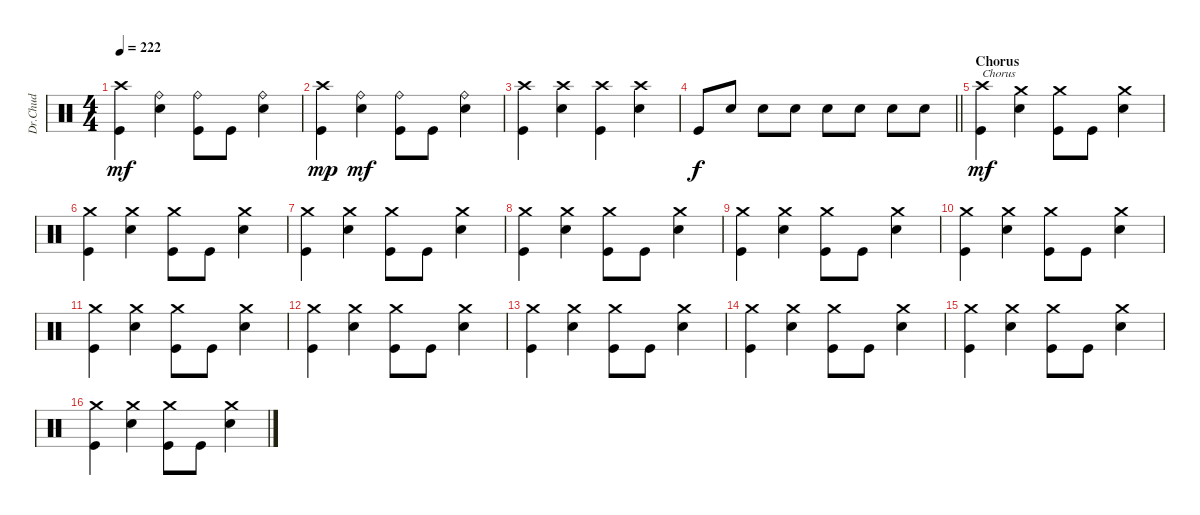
\track ("Dr.Chud" "Dr.Chud") {instrument percussion}
\staff {score}
\articulation defaults
\ts (4 4)
\tempo 222
\clef neutral
\ks c
("Crash high (hit)" "Kick (hit)").4{dy mf} ("Ride (bell)" "Electric Snare (hit)").4 ("Ride (bell)" "Kick (hit)").8 "Kick (hit)".8 ("Ride (bell)" "Electric Snare (hit)").4 |
("Crash high (hit)" "Kick (hit)").4{dy mp} ("Ride (bell)" "Electric Snare (hit)").4{dy mf} ("Ride (bell)" "Kick (hit)").8 "Kick (hit)".8 ("Ride (bell)" "Electric Snare (hit)").4 |
("Crash high (hit)" "Kick (hit)").4 ("Crash high (hit)" "Electric Snare (hit)").4 ("Crash high (hit)" "Kick (hit)").4 ("Crash high (hit)" "Electric Snare (hit)").4 |
\barLineRight lightlight "Kick (hit)".8{dy f} "Electric Snare (hit)".8 "Electric Snare (hit)".8 "Electric Snare (hit)".8 "Electric Snare (hit)".8 "Electric Snare (hit)".8 "Electric Snare (hit)".8 "Electric Snare (hit)".8
|
\section ("" "Chorus")
("Crash high (hit)" "Kick (hit)").4{txt "Chorus" dy mf} ("Crash medium (hit)" "Electric Snare (hit)").4 ("Crash medium (hit)" "Kick (hit)").8 "Kick (hit)".8 ("Crash medium (hit)" "Electric Snare (hit)").4 |
("Crash medium (hit)" "Kick (hit)").4 ("Crash medium (hit)" "Electric Snare (hit)").4 ("Crash medium (hit)" "Kick (hit)").8 "Kick (hit)".8 ("Crash medium (hit)" "Electric Snare (hit)").4 |
("Crash medium (hit)" "Kick (hit)").4 ("Crash medium (hit)" "Electric Snare (hit)").4 ("Crash medium (hit)" "Kick (hit)").8 "Kick (hit)".8 ("Crash medium (hit)" "Electric Snare (hit)").4 |
("Crash medium (hit)" "Kick (hit)").4 ("Crash medium (hit)" "Electric Snare (hit)").4 ("Crash medium (hit)" "Kick (hit)").8 "Kick (hit)".8 ("Crash medium (hit)" "Electric Snare (hit)").4 |
("Crash medium (hit)" "Kick (hit)").4 ("Crash medium (hit)" "Electric Snare (hit)").4 ("Crash medium (hit)" "Kick (hit)").8 "Kick (hit)".8 ("Crash medium (hit)" "Electric Snare (hit)").4 |
("Crash medium (hit)" "Kick (hit)").4 ("Crash medium (hit)" "Electric Snare (hit)").4 ("Crash medium (hit)" "Kick (hit)").8 "Kick (hit)".8 ("Crash medium (hit)" "Electric Snare (hit)").4 |
("Crash medium (hit)" "Kick (hit)").4 ("Crash medium (hit)" "Electric Snare (hit)").4 ("Crash medium (hit)" "Kick (hit)").8 "Kick (hit)".8 ("Crash medium (hit)" "Electric Snare (hit)").4 |
("Crash medium (hit)" "Kick (hit)").4 ("Crash medium (hit)" "Electric Snare (hit)").4 ("Crash medium (hit)" "Kick (hit)").8 "Kick (hit)".8 ("Crash medium (hit)" "Electric Snare (hit)").4 |
("Crash medium (hit)" "Kick (hit)").4 ("Crash medium (hit)" "Electric Snare (hit)").4 ("Crash medium (hit)" "Kick (hit)").8 "Kick (hit)".8 ("Crash medium (hit)" "Electric Snare (hit)").4 |
("Crash medium (hit)" "Kick (hit)").4 ("Crash medium (hit)" "Electric Snare (hit)").4 ("Crash medium (hit)" "Kick (hit)").8 "Kick (hit)".8 ("Crash medium (hit)" "Electric Snare (hit)").4 |
("Crash medium (hit)" "Kick (hit)").4 ("Crash medium (hit)" "Electric Snare (hit)").4 ("Crash medium (hit)" "Kick (hit)").8 "Kick (hit)".8 ("Crash medium (hit)" "Electric Snare (hit)").4 |
("Crash medium (hit)" "Kick (hit)").4 ("Crash medium (hit)" "Electric Snare (hit)").4 ("Crash medium (hit)" "Kick (hit)").8 "Kick (hit)".8 ("Crash medium (hit)" "Electric Snare (hit)").4
